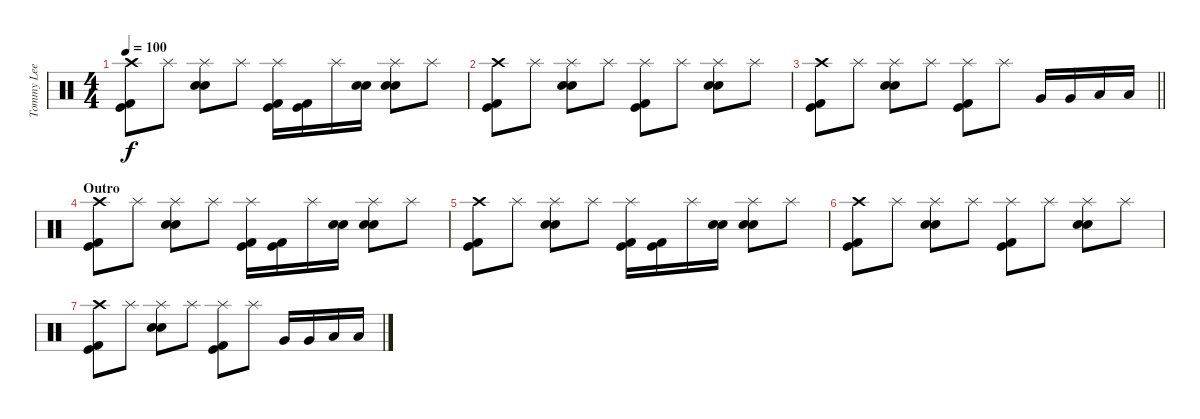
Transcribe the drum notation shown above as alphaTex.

\track ("Tommy Lee" "Tommy Lee") {instrument percussion}
\staff {score}
\articulation defaults
\ts (4 4)
\tempo 100
\clef neutral
\ks c
("Crash high (hit)" "Kick (hit) 2" "Kick (hit)").8{dy f} "Splash (hit)".8 ("Splash (hit)" "Electric Snare (hit)" "Snare (hit) 2").8 "Splash (hit)".8 ("Splash (hit)" "Kick (hit) 2" "Kick (hit)").16 ("Kick (hit) 2" "Kick (hit)").16 "Splash (hit)".16 ("Electric Snare (hit)" "Snare (hit) 2").16 ("Splash (hit)" "Electric Snare (hit)" "Snare (hit) 2").8 "Splash (hit)".8 |
("Crash high (hit)" "Kick (hit) 2" "Kick (hit)").8 "Splash (hit)".8 ("Splash (hit)" "Electric Snare (hit)" "Snare (hit) 2").8 "Splash (hit)".8 ("Splash (hit)" "Kick (hit) 2" "Kick (hit)").8 "Splash (hit)".8 ("Splash (hit)" "Electric Snare (hit)" "Snare (hit) 2").8 "Splash (hit)".8 |
\barLineRight lightlight
("Crash high (hit)" "Kick (hit) 2" "Kick (hit)").8 "Splash (hit)".8 ("Splash (hit)" "Electric Snare (hit)" "Snare (hit) 2").8 "Splash (hit)".8 ("Splash (hit)" "Kick (hit) 2" "Kick (hit)").8 "Splash (hit)".8 "Very Low Tom (hit)".16 "Very Low Tom (hit)".16 "Low Floor Tom (hit)".16 "Low Floor Tom (hit)".16 |
\section ("" "Outro")
("Crash high (hit)" "Kick (hit) 2" "Kick (hit)").8 "Splash (hit)".8 ("Splash (hit)" "Electric Snare (hit)" "Snare (hit) 2").8 "Splash (hit)".8 ("Splash (hit)" "Kick (hit) 2" "Kick (hit)").16 ("Kick (hit) 2" "Kick (hit)").16 "Splash (hit)".16 ("Electric Snare (hit)" "Snare (hit) 2").16 ("Splash (hit)" "Electric Snare (hit)" "Snare (hit) 2").8 "Splash (hit)".8 |
("Crash high (hit)" "Kick (hit) 2" "Kick (hit)").8 "Splash (hit)".8 ("Splash (hit)" "Electric Snare (hit)" "Snare (hit) 2").8 "Splash (hit)".8 ("Splash (hit)" "Kick (hit) 2" "Kick (hit)").16 ("Kick (hit) 2" "Kick (hit)").16 "Splash (hit)".16 ("Electric Snare (hit)" "Snare (hit) 2").16 ("Splash (hit)" "Electric Snare (hit)" "Snare (hit) 2").8 "Splash (hit)".8 |
("Crash high (hit)" "Kick (hit) 2" "Kick (hit)").8 "Splash (hit)".8 ("Splash (hit)" "Electric Snare (hit)" "Snare (hit) 2").8 "Splash (hit)".8 ("Splash (hit)" "Kick (hit) 2" "Kick (hit)").8 "Splash (hit)".8 ("Splash (hit)" "Electric Snare (hit)" "Snare (hit) 2").8 "Splash (hit)".8 |
("Crash high (hit)" "Kick (hit) 2" "Kick (hit)").8 "Splash (hit)".8 ("Splash (hit)" "Electric Snare (hit)" "Snare (hit) 2").8 "Splash (hit)".8 ("Splash (hit)" "Kick (hit) 2" "Kick (hit)").8 "Splash (hit)".8 "Very Low Tom (hit)".16 "Very Low Tom (hit)".16 "Low Floor Tom (hit)".16 "Low Floor Tom (hit)".16
